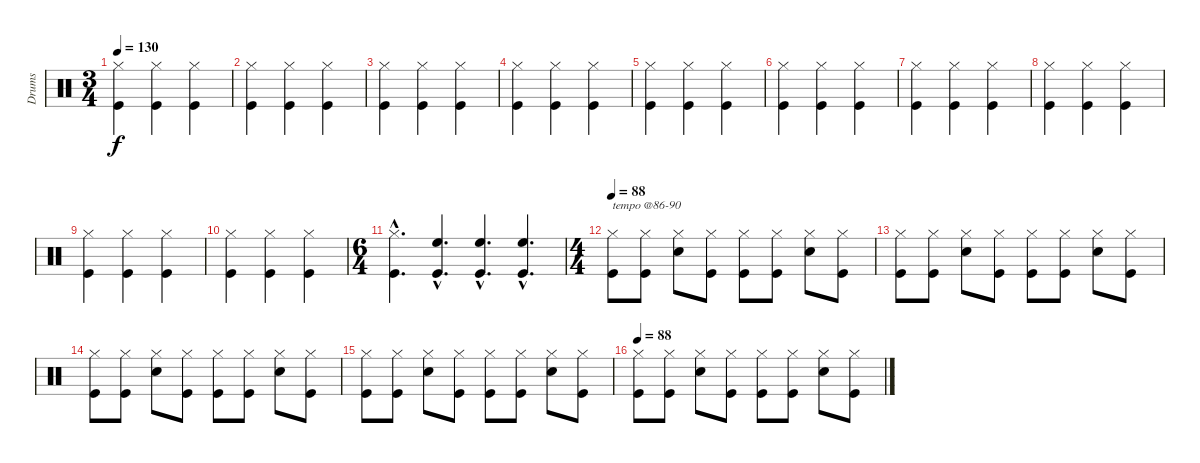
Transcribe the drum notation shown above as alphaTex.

\track ("Drums" "Drums") {instrument percussion}
\staff {score}
\articulation defaults
\ts (3 4)
\tempo 130
\clef neutral
\ks c
("Hi-Hat (closed)" "Kick (hit)").4{dy f} ("Hi-Hat (closed)" "Kick (hit)").4 ("Hi-Hat (closed)" "Kick (hit)").4 |
("Hi-Hat (closed)" "Kick (hit)").4 ("Hi-Hat (closed)" "Kick (hit)").4 ("Hi-Hat (closed)" "Kick (hit)").4 |
("Hi-Hat (closed)" "Kick (hit)").4 ("Hi-Hat (closed)" "Kick (hit)").4 ("Hi-Hat (closed)" "Kick (hit)").4 |
("Hi-Hat (closed)" "Kick (hit)").4 ("Hi-Hat (closed)" "Kick (hit)").4 ("Hi-Hat (closed)" "Kick (hit)").4 |
("Hi-Hat (closed)" "Kick (hit)").4 ("Hi-Hat (closed)" "Kick (hit)").4 ("Hi-Hat (closed)" "Kick (hit)").4 |
("Hi-Hat (closed)" "Kick (hit)").4 ("Hi-Hat (closed)" "Kick (hit)").4 ("Hi-Hat (closed)" "Kick (hit)").4 |
("Hi-Hat (closed)" "Kick (hit)").4 ("Hi-Hat (closed)" "Kick (hit)").4 ("Hi-Hat (closed)" "Kick (hit)").4 |
("Hi-Hat (closed)" "Kick (hit)").4 ("Hi-Hat (closed)" "Kick (hit)").4 ("Hi-Hat (closed)" "Kick (hit)").4 |
("Hi-Hat (closed)" "Kick (hit)").4 ("Hi-Hat (closed)" "Kick (hit)").4 ("Hi-Hat (closed)" "Kick (hit)").4 |
("Hi-Hat (closed)" "Kick (hit)").4 ("Hi-Hat (closed)" "Kick (hit)").4 ("Hi-Hat (closed)" "Kick (hit)").4 |
\ts (6 4)
("Hi-Hat (closed)"{hac} "Kick (hit)"{hac}).4{d} ("High Floor Tom (hit)"{hac} "Kick (hit)"{hac}).4{d} ("High Floor Tom (hit)"{hac} "Kick (hit)"{hac}).4{d} ("High Floor Tom (hit)"{hac} "Kick (hit)"{hac}).4{d} |
\ts (4 4)
\tempo 88
("Hi-Hat (closed)" "Kick (hit)").8{txt "tempo @86-90"} ("Hi-Hat (closed)" "Kick (hit)").8 ("Hi-Hat (closed)" "Snare (hit) 2").8 ("Hi-Hat (closed)" "Kick (hit)").8 ("Hi-Hat (closed)" "Kick (hit)").8 ("Hi-Hat (closed)" "Kick (hit)").8 ("Hi-Hat (closed)" "Snare (hit) 2").8 ("Hi-Hat (closed)" "Kick (hit)").8 |
("Hi-Hat (closed)" "Kick (hit)").8 ("Hi-Hat (closed)" "Kick (hit)").8 ("Hi-Hat (closed)" "Snare (hit) 2").8 ("Hi-Hat (closed)" "Kick (hit)").8 ("Hi-Hat (closed)" "Kick (hit)").8 ("Hi-Hat (closed)" "Kick (hit)").8 ("Hi-Hat (closed)" "Snare (hit) 2").8 ("Hi-Hat (closed)" "Kick (hit)").8 |
("Hi-Hat (closed)" "Kick (hit)").8 ("Hi-Hat (closed)" "Kick (hit)").8 ("Hi-Hat (closed)" "Snare (hit) 2").8 ("Hi-Hat (closed)" "Kick (hit)").8 ("Hi-Hat (closed)" "Kick (hit)").8 ("Hi-Hat (closed)" "Kick (hit)").8 ("Hi-Hat (closed)" "Snare (hit) 2").8 ("Hi-Hat (closed)" "Kick (hit)").8 |
("Hi-Hat (closed)" "Kick (hit)").8 ("Hi-Hat (closed)" "Kick (hit)").8 ("Hi-Hat (closed)" "Snare (hit) 2").8 ("Hi-Hat (closed)" "Kick (hit)").8 ("Hi-Hat (closed)" "Kick (hit)").8 ("Hi-Hat (closed)" "Kick (hit)").8 ("Hi-Hat (closed)" "Snare (hit) 2").8 ("Hi-Hat (closed)" "Kick (hit)").8 |
\tempo 88
("Hi-Hat (closed)" "Kick (hit)").8 ("Hi-Hat (closed)" "Kick (hit)").8 ("Hi-Hat (closed)" "Snare (hit) 2").8 ("Hi-Hat (closed)" "Kick (hit)").8 ("Hi-Hat (closed)" "Kick (hit)").8 ("Hi-Hat (closed)" "Kick (hit)").8 ("Hi-Hat (closed)" "Snare (hit) 2").8 ("Hi-Hat (closed)" "Kick (hit)").8
